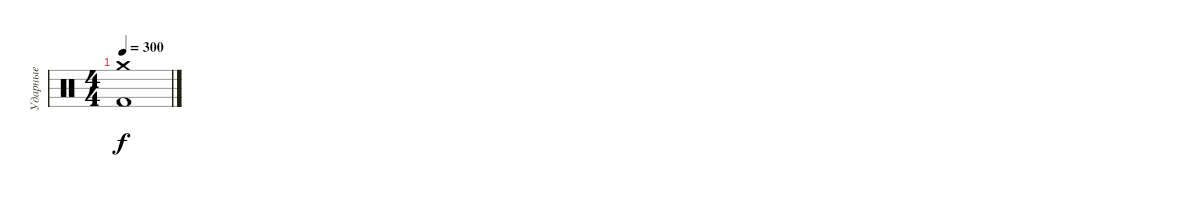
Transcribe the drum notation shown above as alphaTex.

\track ("Ударные" "Ударные") {instrument percussion}
\staff {score}
\articulation defaults
\ts (4 4)
\tempo 300
\clef neutral
\ks c
("Crash medium (hit)" "Kick (hit) 2").1{dy f}
